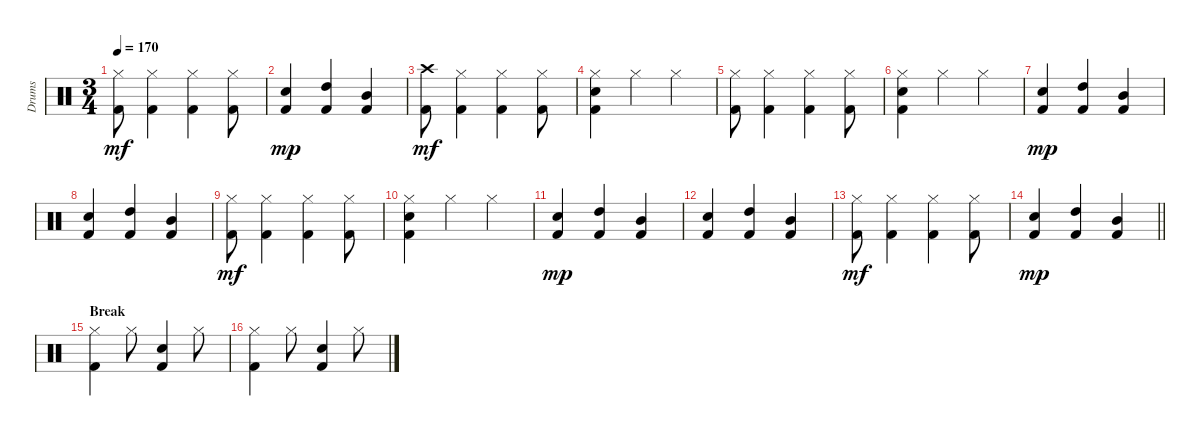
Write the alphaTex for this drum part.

\track ("Drums" "Drums") {instrument percussion}
\staff {score}
\articulation defaults
\ts (3 4)
\tempo 170
\clef neutral
\ks c
("Hi-Hat (closed)" "Kick (hit) 2").8{dy mf} ("Hi-Hat (closed)" "Kick (hit) 2").4 ("Hi-Hat (closed)" "Kick (hit) 2").4 ("Hi-Hat (closed)" "Kick (hit) 2").8 |
("Snare (hit) 2" "Kick (hit) 2").4{dy mp} ("High Tom (hit)" "Kick (hit) 2").4 ("Mid Tom (hit)" "Kick (hit) 2").4 |
("Crash high (hit)" "Kick (hit) 2").8{dy mf} ("Hi-Hat (closed)" "Kick (hit) 2").4 ("Hi-Hat (closed)" "Kick (hit) 2").4 ("Hi-Hat (closed)" "Kick (hit) 2").8 |
("Hi-Hat (closed)" "Snare (hit) 2" "Kick (hit) 2").4 "Hi-Hat (closed)".4 "Hi-Hat (closed)".4 |
("Hi-Hat (closed)" "Kick (hit) 2").8 ("Hi-Hat (closed)" "Kick (hit) 2").4 ("Hi-Hat (closed)" "Kick (hit) 2").4 ("Hi-Hat (closed)" "Kick (hit) 2").8 |
("Hi-Hat (closed)" "Snare (hit) 2" "Kick (hit) 2").4 "Hi-Hat (closed)".4 "Hi-Hat (closed)".4 |
("Snare (hit) 2" "Kick (hit) 2").4{dy mp} ("High Tom (hit)" "Kick (hit) 2").4 ("Mid Tom (hit)" "Kick (hit) 2").4 |
("Snare (hit) 2" "Kick (hit) 2").4 ("High Tom (hit)" "Kick (hit) 2").4 ("Mid Tom (hit)" "Kick (hit) 2").4 |
("Hi-Hat (closed)" "Kick (hit) 2").8{dy mf} ("Hi-Hat (closed)" "Kick (hit) 2").4 ("Hi-Hat (closed)" "Kick (hit) 2").4 ("Hi-Hat (closed)" "Kick (hit) 2").8 |
("Hi-Hat (closed)" "Snare (hit) 2" "Kick (hit) 2").4 "Hi-Hat (closed)".4 "Hi-Hat (closed)".4 |
("Snare (hit) 2" "Kick (hit) 2").4{dy mp} ("High Tom (hit)" "Kick (hit) 2").4 ("Mid Tom (hit)" "Kick (hit) 2").4 |
("Snare (hit) 2" "Kick (hit) 2").4 ("High Tom (hit)" "Kick (hit) 2").4 ("Mid Tom (hit)" "Kick (hit) 2").4 |
("Hi-Hat (closed)" "Kick (hit) 2").8{dy mf} ("Hi-Hat (closed)" "Kick (hit) 2").4 ("Hi-Hat (closed)" "Kick (hit) 2").4 ("Hi-Hat (closed)" "Kick (hit) 2").8 |
\barLineRight lightlight
("Snare (hit) 2" "Kick (hit) 2").4{dy mp} ("High Tom (hit)" "Kick (hit) 2").4 ("Mid Tom (hit)" "Kick (hit) 2").4 |
\section ("" "Break")
("Hi-Hat (closed)" "Kick (hit) 2").4 "Hi-Hat (closed)".8 ("Snare (hit) 2" "Kick (hit) 2").4 "Hi-Hat (closed)".8 |
("Hi-Hat (closed)" "Kick (hit) 2").4 "Hi-Hat (closed)".8 ("Snare (hit) 2" "Kick (hit) 2").4 "Hi-Hat (closed)".8
